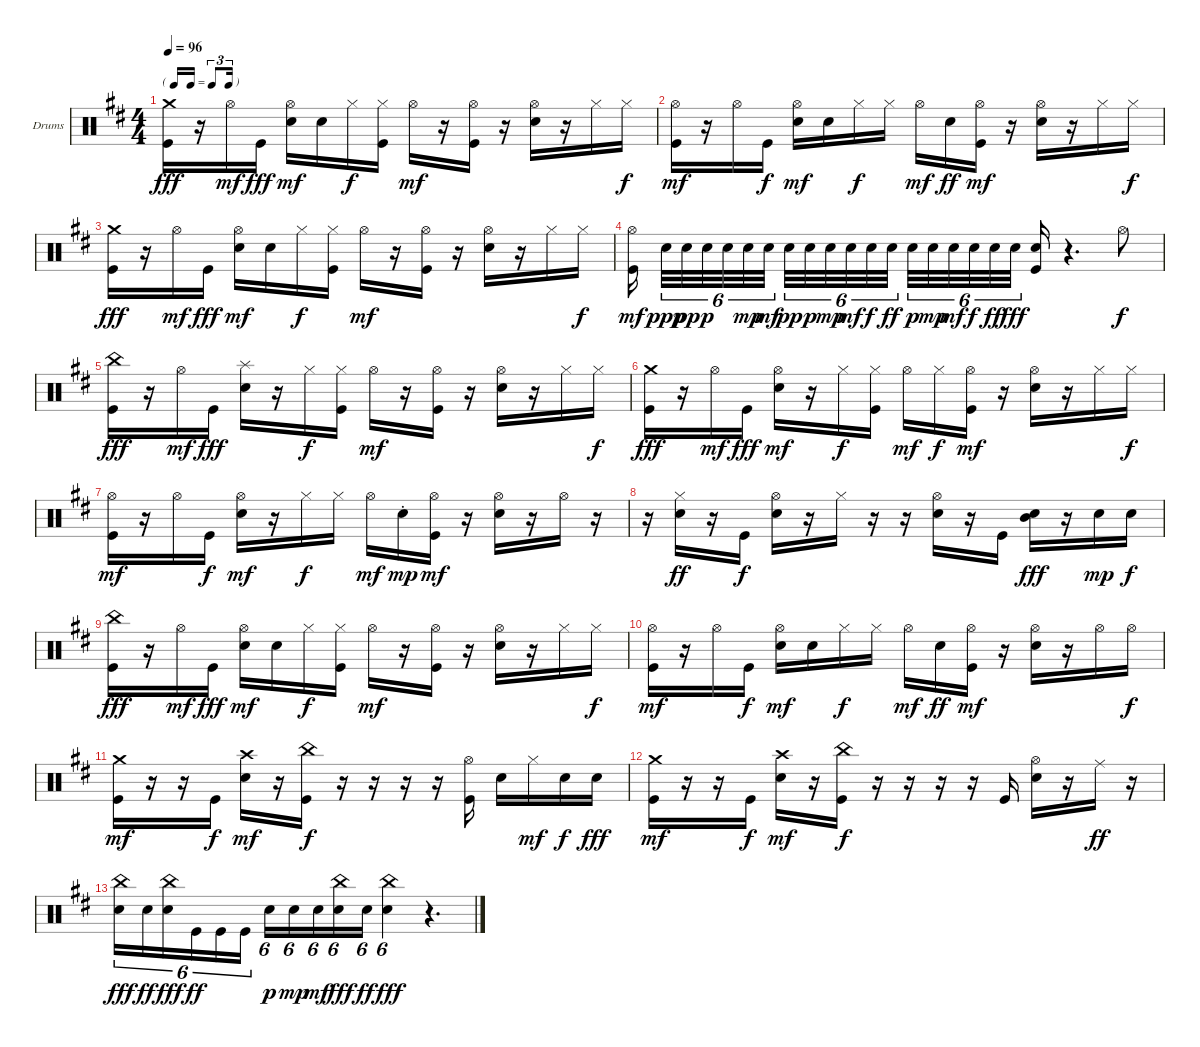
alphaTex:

\bracketExtendMode groupsimilarinstruments
\firstSystemTrackNameOrientation horizontal
\otherSystemsTrackNameOrientation horizontal
\track ("Drumkit" "Drums") {instrument percussion}
\staff {score}
\articulation defaults
\ts (4 4)
\tf triplet16th
\tempo 96
\clef neutral
\ks d
("Crash medium (hit)" "Kick (hit)").16{dy fff} r.16 "Hi-Hat (open)".16{dy mf} "Kick (hit)".16{dy fff} ("Hi-Hat (open)" "Snare (hit) 2").16{dy mf} "Snare (hit) 2".16 "Hi-Hat (closed)".16{dy f} ("Hi-Hat (closed)" "Kick (hit)").16 "Hi-Hat (open)".16{dy mf} r.16 ("Hi-Hat (open)" "Kick (hit)").16 r.16 ("Hi-Hat (open)" "Snare (hit) 2").16 r.16 "Hi-Hat (closed)".16 "Hi-Hat (closed)".16{dy f} |
("Hi-Hat (open)" "Kick (hit)").16{dy mf} r.16 "Hi-Hat (open)".16 "Kick (hit)".16{dy f} ("Hi-Hat (open)" "Snare (hit) 2").16{dy mf} "Snare (hit) 2".16 "Hi-Hat (closed)".16{dy f} "Hi-Hat (closed)".16 "Hi-Hat (open)".16{dy mf} "Snare (hit) 2".16{dy ff} ("Hi-Hat (open)" "Kick (hit)").16{dy mf} r.16 ("Hi-Hat (open)" "Snare (hit) 2").16 r.16 "Hi-Hat (closed)".16 "Hi-Hat (closed)".16{dy f} |
("Crash medium (hit)" "Kick (hit)").16{dy fff} r.16 "Hi-Hat (open)".16{dy mf} "Kick (hit)".16{dy fff} ("Hi-Hat (open)" "Snare (hit) 2").16{dy mf} "Snare (hit) 2".16 "Hi-Hat (closed)".16{dy f} ("Hi-Hat (closed)" "Kick (hit)").16 "Hi-Hat (open)".16{dy mf} r.16 ("Hi-Hat (open)" "Kick (hit)").16 r.16 ("Hi-Hat (open)" "Snare (hit) 2").16 r.16 "Hi-Hat (closed)".16 "Hi-Hat (closed)".16{dy f} |
("Hi-Hat (open)" "Kick (hit)").16{dy mf} "Snare (hit) 2".32{tu (6 4) dy ppp} "Snare (hit) 2".32{tu (6 4) dy pp} "Snare (hit) 2".32{tu (6 4) dy p} "Snare (hit) 2".32{tu (6 4)} "Snare (hit) 2".32{tu (6 4) dy mp} "Snare (hit) 2".32{tu (6 4) dy mf} "Snare (hit) 2".32{tu (6 4) dy pp} "Snare (hit) 2".32{tu (6 4) dy p} "Snare (hit) 2".32{tu (6 4) dy mp} "Snare (hit) 2".32{tu (6 4) dy mf} "Snare (hit) 2".32{tu (6 4) dy f} "Snare (hit) 2".32{tu (6 4) dy ff} "Snare (hit) 2".32{tu (6 4) dy p} "Snare (hit) 2".32{tu (6 4) dy mp} "Snare (hit) 2".32{tu (6 4) dy mf} "Snare (hit) 2".32{tu (6 4) dy f} "Snare (hit) 2".32{tu (6 4) dy ff} "Snare (hit) 2".32{tu (6 4) dy fff} ("Snare (hit) 2" "Kick (hit)").16 r.4{d} "Hi-Hat (open)".8{dy f} |
("China (hit)" "Kick (hit)").16{dy fff} r.16 "Hi-Hat (open)".16{dy mf} "Kick (hit)".16{dy fff} ("Splash (hit)" "Snare (hit) 2").16 r.16 "Hi-Hat (closed)".16{dy f} ("Hi-Hat (closed)" "Kick (hit)").16 "Hi-Hat (open)".16{dy mf} r.16 ("Hi-Hat (open)" "Kick (hit)").16 r.16 ("Hi-Hat (open)" "Snare (hit) 2").16 r.16 "Hi-Hat (closed)".16 "Hi-Hat (closed)".16{dy f} |
("Crash medium (hit)" "Kick (hit)").16{dy fff} r.16 "Hi-Hat (open)".16{dy mf} "Kick (hit)".16{dy fff} ("Hi-Hat (open)" "Snare (hit) 2").16{dy mf} r.16 "Hi-Hat (closed)".16{dy f} ("Hi-Hat (closed)" "Kick (hit)").16 "Hi-Hat (open)".16{dy mf} "Hi-Hat (closed)".16{dy f} ("Hi-Hat (open)" "Kick (hit)").16{dy mf} r.16 ("Hi-Hat (open)" "Snare (hit) 2").16 r.16 "Hi-Hat (closed)".16 "Hi-Hat (closed)".16{dy f} |
("Hi-Hat (open)" "Kick (hit)").16{dy mf} r.16 "Hi-Hat (open)".16 "Kick (hit)".16{dy f} ("Hi-Hat (open)" "Snare (hit) 2").16{dy mf} r.16 "Hi-Hat (closed)".16{dy f} "Hi-Hat (closed)".16 "Hi-Hat (open)".16{dy mf} "Snare (hit) 2"{st}.16{dy mp} ("Hi-Hat (open)" "Kick (hit)").16{dy mf} r.16 ("Hi-Hat (open)" "Snare (hit) 2").16 r.16 "Hi-Hat (open)".16 r.16 |
r.16 ("Hi-Hat (closed)" "Snare (hit) 2").16{dy ff} r.16 "Kick (hit)".16{dy f} ("Hi-Hat (open)" "Snare (hit) 2").16 r.16 "Hi-Hat (closed)".16 r.16 r.16 ("Hi-Hat (open)" "Snare (hit) 2").16 r.16 "Kick (hit)".16 ("Mid Tom (hit)" "Snare (hit) 2").16{dy fff} r.16 "Snare (hit) 2".16{dy mp} "Snare (hit) 2".16{dy f} |
("China (hit)" "Kick (hit)").16{dy fff} r.16 "Hi-Hat (open)".16{dy mf} "Kick (hit)".16{dy fff} ("Hi-Hat (open)" "Snare (hit) 2").16{dy mf} "Snare (hit) 2".16 "Hi-Hat (closed)".16{dy f} ("Hi-Hat (closed)" "Kick (hit)").16 "Hi-Hat (open)".16{dy mf} r.16 ("Hi-Hat (open)" "Kick (hit)").16 r.16 ("Hi-Hat (open)" "Snare (hit) 2").16 r.16 "Hi-Hat (closed)".16 "Hi-Hat (closed)".16{dy f} |
("Hi-Hat (open)" "Kick (hit)").16{dy mf} r.16 "Hi-Hat (open)".16 "Kick (hit)".16{dy f} ("Hi-Hat (open)" "Snare (hit) 2").16{dy mf} "Snare (hit) 2".16 "Hi-Hat (closed)".16{dy f} "Hi-Hat (closed)".16 "Hi-Hat (open)".16{dy mf} "Snare (hit) 2".16{dy ff} ("Hi-Hat (open)" "Kick (hit)").16{dy mf} r.16 ("Hi-Hat (open)" "Snare (hit) 2").16 r.16 "Hi-Hat (open)".16 "Hi-Hat (open)".16{dy f} |
("Crash medium (hit)" "Kick (hit)").16{dy mf} r.16 r.16 "Kick (hit)".16{dy f} ("Crash high (hit)" "Snare (hit) 2").16{dy mf} r.16 ("China (hit)" "Kick (hit)").16{dy f} r.16 r.16 r.16 r.16 ("Hi-Hat (open)" "Kick (hit)").16 "Snare (hit) 2".16 "Hi-Hat (closed)".16{dy mf} "Snare (hit) 2".16{dy f} "Snare (hit) 2".16{dy fff} |
("Crash medium (hit)" "Kick (hit)").16{dy mf} r.16 r.16 "Kick (hit)".16{dy f} ("Crash high (hit)" "Snare (hit) 2").16{dy mf} r.16 ("China (hit)" "Kick (hit)").16{dy f} r.16 r.16 r.16 r.16 "Kick (hit)".16 ("Hi-Hat (open)" "Snare (hit) 2").16 r.16 "Ride (middle)".16{dy ff} r.16 |
("China (hit)" "Snare (hit) 2").16{tu (6 4) dy fff} "Snare (hit) 2".16{tu (6 4) dy ff} ("China (hit)" "Snare (hit) 2").16{tu (6 4) dy fff} "Kick (hit)".16{tu (6 4) dy ff} "Kick (hit)".16{tu (6 4)} "Kick (hit)".16{tu (6 4)} "Snare (hit) 2".16{tu (6 4) dy p} "Snare (hit) 2".16{tu (6 4) dy mp} "Snare (hit) 2".16{tu (6 4) dy mf} ("China (hit)" "Snare (hit) 2").16{tu (6 4) dy fff} "Snare (hit) 2".16{tu (6 4) dy ff} ("China (hit)" "Snare (hit) 2").4{tu (6 4) dy fff} r.4{d}
